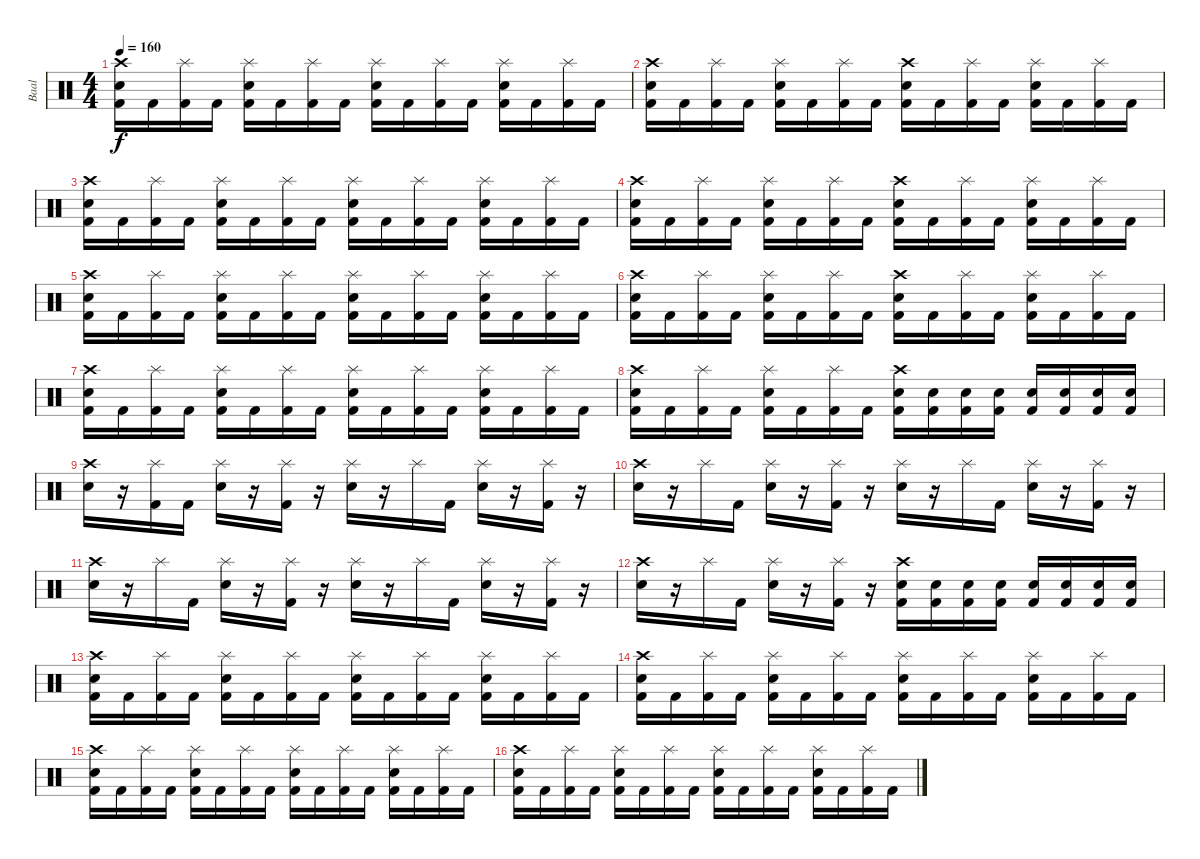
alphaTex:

\track ("Baal" "Baal") {instrument percussion}
\staff {score}
\articulation defaults
\ts (4 4)
\tempo 160
\clef neutral
\ks c
("Crash high (hit)" "Electric Snare (hit)" "Kick (hit) 2").16{dy f} "Kick (hit) 2".16 ("Splash (hit)" "Kick (hit) 2").16 "Kick (hit) 2".16 ("Splash (hit)" "Electric Snare (hit)" "Kick (hit) 2").16 "Kick (hit) 2".16 ("Splash (hit)" "Kick (hit) 2").16 "Kick (hit) 2".16 ("Splash (hit)" "Electric Snare (hit)" "Kick (hit) 2").16 "Kick (hit) 2".16 ("Splash (hit)" "Kick (hit) 2").16 "Kick (hit) 2".16 ("Splash (hit)" "Electric Snare (hit)" "Kick (hit) 2").16 "Kick (hit) 2".16 ("Splash (hit)" "Kick (hit) 2").16 "Kick (hit) 2".16 |
("Crash high (hit)" "Electric Snare (hit)" "Kick (hit) 2").16 "Kick (hit) 2".16 ("Splash (hit)" "Kick (hit) 2").16 "Kick (hit) 2".16 ("Splash (hit)" "Electric Snare (hit)" "Kick (hit) 2").16 "Kick (hit) 2".16 ("Splash (hit)" "Kick (hit) 2").16 "Kick (hit) 2".16 ("Crash high (hit)" "Electric Snare (hit)" "Kick (hit) 2").16 "Kick (hit) 2".16 ("Splash (hit)" "Kick (hit) 2").16 "Kick (hit) 2".16 ("Splash (hit)" "Electric Snare (hit)" "Kick (hit) 2").16 "Kick (hit) 2".16 ("Splash (hit)" "Kick (hit) 2").16 "Kick (hit) 2".16 |
("Crash high (hit)" "Electric Snare (hit)" "Kick (hit) 2").16 "Kick (hit) 2".16 ("Splash (hit)" "Kick (hit) 2").16 "Kick (hit) 2".16 ("Splash (hit)" "Electric Snare (hit)" "Kick (hit) 2").16 "Kick (hit) 2".16 ("Splash (hit)" "Kick (hit) 2").16 "Kick (hit) 2".16 ("Splash (hit)" "Electric Snare (hit)" "Kick (hit) 2").16 "Kick (hit) 2".16 ("Splash (hit)" "Kick (hit) 2").16 "Kick (hit) 2".16 ("Splash (hit)" "Electric Snare (hit)" "Kick (hit) 2").16 "Kick (hit) 2".16 ("Splash (hit)" "Kick (hit) 2").16 "Kick (hit) 2".16 |
("Crash high (hit)" "Electric Snare (hit)" "Kick (hit) 2").16 "Kick (hit) 2".16 ("Splash (hit)" "Kick (hit) 2").16 "Kick (hit) 2".16 ("Splash (hit)" "Electric Snare (hit)" "Kick (hit) 2").16 "Kick (hit) 2".16 ("Splash (hit)" "Kick (hit) 2").16 "Kick (hit) 2".16 ("Crash high (hit)" "Electric Snare (hit)" "Kick (hit) 2").16 "Kick (hit) 2".16 ("Splash (hit)" "Kick (hit) 2").16 "Kick (hit) 2".16 ("Splash (hit)" "Electric Snare (hit)" "Kick (hit) 2").16 "Kick (hit) 2".16 ("Splash (hit)" "Kick (hit) 2").16 "Kick (hit) 2".16 |
("Crash high (hit)" "Electric Snare (hit)" "Kick (hit) 2").16 "Kick (hit) 2".16 ("Splash (hit)" "Kick (hit) 2").16 "Kick (hit) 2".16 ("Splash (hit)" "Electric Snare (hit)" "Kick (hit) 2").16 "Kick (hit) 2".16 ("Splash (hit)" "Kick (hit) 2").16 "Kick (hit) 2".16 ("Splash (hit)" "Electric Snare (hit)" "Kick (hit) 2").16 "Kick (hit) 2".16 ("Splash (hit)" "Kick (hit) 2").16 "Kick (hit) 2".16 ("Splash (hit)" "Electric Snare (hit)" "Kick (hit) 2").16 "Kick (hit) 2".16 ("Splash (hit)" "Kick (hit) 2").16 "Kick (hit) 2".16 |
("Crash high (hit)" "Electric Snare (hit)" "Kick (hit) 2").16 "Kick (hit) 2".16 ("Splash (hit)" "Kick (hit) 2").16 "Kick (hit) 2".16 ("Splash (hit)" "Electric Snare (hit)" "Kick (hit) 2").16 "Kick (hit) 2".16 ("Splash (hit)" "Kick (hit) 2").16 "Kick (hit) 2".16 ("Crash high (hit)" "Electric Snare (hit)" "Kick (hit) 2").16 "Kick (hit) 2".16 ("Splash (hit)" "Kick (hit) 2").16 "Kick (hit) 2".16 ("Splash (hit)" "Electric Snare (hit)" "Kick (hit) 2").16 "Kick (hit) 2".16 ("Splash (hit)" "Kick (hit) 2").16 "Kick (hit) 2".16 |
("Crash high (hit)" "Electric Snare (hit)" "Kick (hit) 2").16 "Kick (hit) 2".16 ("Splash (hit)" "Kick (hit) 2").16 "Kick (hit) 2".16 ("Splash (hit)" "Electric Snare (hit)" "Kick (hit) 2").16 "Kick (hit) 2".16 ("Splash (hit)" "Kick (hit) 2").16 "Kick (hit) 2".16 ("Splash (hit)" "Electric Snare (hit)" "Kick (hit) 2").16 "Kick (hit) 2".16 ("Splash (hit)" "Kick (hit) 2").16 "Kick (hit) 2".16 ("Splash (hit)" "Electric Snare (hit)" "Kick (hit) 2").16 "Kick (hit) 2".16 ("Splash (hit)" "Kick (hit) 2").16 "Kick (hit) 2".16 |
("Crash high (hit)" "Electric Snare (hit)" "Kick (hit) 2").16 "Kick (hit) 2".16 ("Splash (hit)" "Kick (hit) 2").16 "Kick (hit) 2".16 ("Splash (hit)" "Electric Snare (hit)" "Kick (hit) 2").16 "Kick (hit) 2".16 ("Splash (hit)" "Kick (hit) 2").16 "Kick (hit) 2".16 ("Crash high (hit)" "Electric Snare (hit)" "Kick (hit) 2").16 ("Electric Snare (hit)" "Kick (hit) 2").16 ("Electric Snare (hit)" "Kick (hit) 2").16 ("Electric Snare (hit)" "Kick (hit) 2").16 ("Electric Snare (hit)" "Kick (hit) 2").16 ("Electric Snare (hit)" "Kick (hit) 2").16 ("Electric Snare (hit)" "Kick (hit) 2").16 ("Electric Snare (hit)" "Kick (hit) 2").16 |
("Crash high (hit)" "Electric Snare (hit)").16 r.16 ("Splash (hit)" "Kick (hit) 2").16 "Kick (hit) 2".16 ("Splash (hit)" "Electric Snare (hit)").16 r.16 ("Splash (hit)" "Kick (hit) 2").16 r.16 ("Splash (hit)" "Electric Snare (hit)").16 r.16 "Splash (hit)".16 "Kick (hit) 2".16 ("Splash (hit)" "Electric Snare (hit)").16 r.16 ("Splash (hit)" "Kick (hit) 2").16 r.16 |
("Crash high (hit)" "Electric Snare (hit)").16 r.16 "Splash (hit)".16 "Kick (hit) 2".16 ("Splash (hit)" "Electric Snare (hit)").16 r.16 ("Splash (hit)" "Kick (hit) 2").16 r.16 ("Splash (hit)" "Electric Snare (hit)").16 r.16 "Splash (hit)".16 "Kick (hit) 2".16 ("Splash (hit)" "Electric Snare (hit)").16 r.16 ("Splash (hit)" "Kick (hit) 2").16 r.16 |
("Crash high (hit)" "Electric Snare (hit)").16 r.16 "Splash (hit)".16 "Kick (hit) 2".16 ("Splash (hit)" "Electric Snare (hit)").16 r.16 ("Splash (hit)" "Kick (hit) 2").16 r.16 ("Splash (hit)" "Electric Snare (hit)").16 r.16 "Splash (hit)".16 "Kick (hit) 2".16 ("Splash (hit)" "Electric Snare (hit)").16 r.16 ("Splash (hit)" "Kick (hit) 2").16 r.16 |
("Crash high (hit)" "Electric Snare (hit)").16 r.16 "Splash (hit)".16 "Kick (hit) 2".16 ("Splash (hit)" "Electric Snare (hit)").16 r.16 ("Splash (hit)" "Kick (hit) 2").16 r.16 ("Crash high (hit)" "Electric Snare (hit)" "Kick (hit) 2").16 ("Electric Snare (hit)" "Kick (hit) 2").16 ("Electric Snare (hit)" "Kick (hit) 2").16 ("Electric Snare (hit)" "Kick (hit) 2").16 ("Electric Snare (hit)" "Kick (hit) 2").16 ("Electric Snare (hit)" "Kick (hit) 2").16 ("Electric Snare (hit)" "Kick (hit) 2").16 ("Electric Snare (hit)" "Kick (hit) 2").16 |
("Crash high (hit)" "Electric Snare (hit)" "Kick (hit) 2").16 "Kick (hit) 2".16 ("Splash (hit)" "Kick (hit) 2").16 "Kick (hit) 2".16 ("Splash (hit)" "Electric Snare (hit)" "Kick (hit) 2").16 "Kick (hit) 2".16 ("Splash (hit)" "Kick (hit) 2").16 "Kick (hit) 2".16 ("Splash (hit)" "Electric Snare (hit)" "Kick (hit) 2").16 "Kick (hit) 2".16 ("Splash (hit)" "Kick (hit) 2").16 "Kick (hit) 2".16 ("Splash (hit)" "Electric Snare (hit)" "Kick (hit) 2").16 "Kick (hit) 2".16 ("Splash (hit)" "Kick (hit) 2").16 "Kick (hit) 2".16 |
("Crash high (hit)" "Electric Snare (hit)" "Kick (hit) 2").16 "Kick (hit) 2".16 ("Splash (hit)" "Kick (hit) 2").16 "Kick (hit) 2".16 ("Splash (hit)" "Electric Snare (hit)" "Kick (hit) 2").16 "Kick (hit) 2".16 ("Splash (hit)" "Kick (hit) 2").16 "Kick (hit) 2".16 ("Splash (hit)" "Electric Snare (hit)" "Kick (hit) 2").16 "Kick (hit) 2".16 ("Splash (hit)" "Kick (hit) 2").16 "Kick (hit) 2".16 ("Splash (hit)" "Electric Snare (hit)" "Kick (hit) 2").16 "Kick (hit) 2".16 ("Splash (hit)" "Kick (hit) 2").16 "Kick (hit) 2".16 |
("Crash high (hit)" "Electric Snare (hit)" "Kick (hit) 2").16 "Kick (hit) 2".16 ("Splash (hit)" "Kick (hit) 2").16 "Kick (hit) 2".16 ("Splash (hit)" "Electric Snare (hit)" "Kick (hit) 2").16 "Kick (hit) 2".16 ("Splash (hit)" "Kick (hit) 2").16 "Kick (hit) 2".16 ("Splash (hit)" "Electric Snare (hit)" "Kick (hit) 2").16 "Kick (hit) 2".16 ("Splash (hit)" "Kick (hit) 2").16 "Kick (hit) 2".16 ("Splash (hit)" "Electric Snare (hit)" "Kick (hit) 2").16 "Kick (hit) 2".16 ("Splash (hit)" "Kick (hit) 2").16 "Kick (hit) 2".16 |
("Crash high (hit)" "Electric Snare (hit)" "Kick (hit) 2").16 "Kick (hit) 2".16 ("Splash (hit)" "Kick (hit) 2").16 "Kick (hit) 2".16 ("Splash (hit)" "Electric Snare (hit)" "Kick (hit) 2").16 "Kick (hit) 2".16 ("Splash (hit)" "Kick (hit) 2").16 "Kick (hit) 2".16 ("Splash (hit)" "Electric Snare (hit)" "Kick (hit) 2").16 "Kick (hit) 2".16 ("Splash (hit)" "Kick (hit) 2").16 "Kick (hit) 2".16 ("Splash (hit)" "Electric Snare (hit)" "Kick (hit) 2").16 "Kick (hit) 2".16 ("Splash (hit)" "Kick (hit) 2").16 "Kick (hit) 2".16
